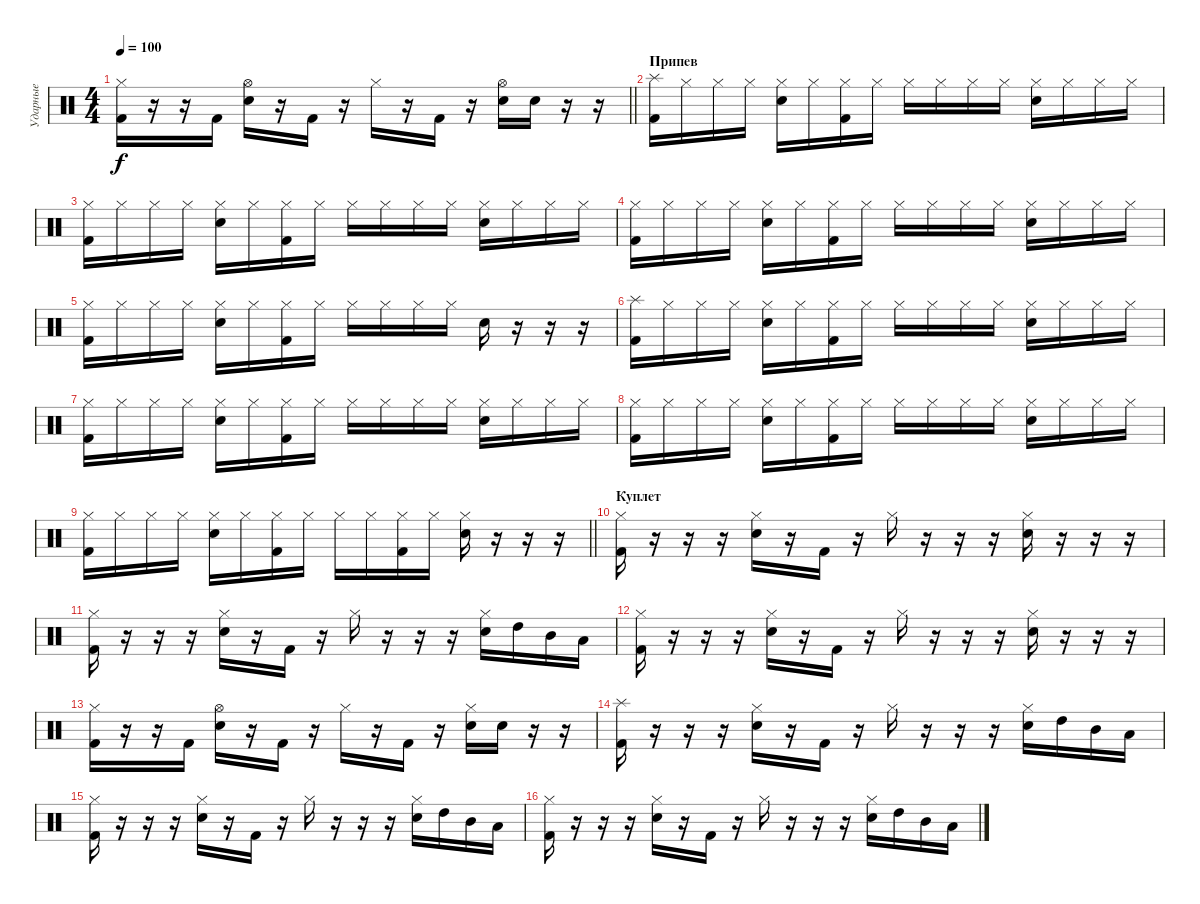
\track ("Ударные" "Ударные") {instrument percussion}
\staff {score}
\articulation defaults
\ts (4 4)
\tempo 100
\clef neutral
\barLineRight lightlight
\ks c
("Hi-Hat (closed)" "Kick (hit) 2").16{dy f} r.16 r.16 "Kick (hit) 2".16 ("Hi-Hat (open)" "Electric Snare (hit)").16 r.16 "Kick (hit) 2".16 r.16 "Hi-Hat (closed)".16 r.16 "Kick (hit) 2".16 r.16 ("Hi-Hat (open)" "Electric Snare (hit)").16 "Electric Snare (hit)".16 r.16 r.16 |
\section ("" "Припев")
("Splash (hit)" "Kick (hit) 2").16 "Hi-Hat (closed)".16 "Hi-Hat (closed)".16 "Hi-Hat (closed)".16 ("Hi-Hat (closed)" "Electric Snare (hit)").16 "Hi-Hat (closed)".16 ("Hi-Hat (closed)" "Kick (hit) 2").16 "Hi-Hat (closed)".16 "Hi-Hat (closed)".16 "Hi-Hat (closed)".16 "Hi-Hat (closed)".16 "Hi-Hat (closed)".16 ("Hi-Hat (closed)" "Electric Snare (hit)").16 "Hi-Hat (closed)".16 "Hi-Hat (closed)".16 "Hi-Hat (closed)".16 |
("Hi-Hat (closed)" "Kick (hit) 2").16 "Hi-Hat (closed)".16 "Hi-Hat (closed)".16 "Hi-Hat (closed)".16 ("Hi-Hat (closed)" "Electric Snare (hit)").16 "Hi-Hat (closed)".16 ("Hi-Hat (closed)" "Kick (hit) 2").16 "Hi-Hat (closed)".16 "Hi-Hat (closed)".16 "Hi-Hat (closed)".16 "Hi-Hat (closed)".16 "Hi-Hat (closed)".16 ("Hi-Hat (closed)" "Electric Snare (hit)").16 "Hi-Hat (closed)".16 "Hi-Hat (closed)".16 "Hi-Hat (closed)".16 |
("Hi-Hat (closed)" "Kick (hit) 2").16 "Hi-Hat (closed)".16 "Hi-Hat (closed)".16 "Hi-Hat (closed)".16 ("Hi-Hat (closed)" "Electric Snare (hit)").16 "Hi-Hat (closed)".16 ("Hi-Hat (closed)" "Kick (hit) 2").16 "Hi-Hat (closed)".16 "Hi-Hat (closed)".16 "Hi-Hat (closed)".16 "Hi-Hat (closed)".16 "Hi-Hat (closed)".16 ("Hi-Hat (closed)" "Electric Snare (hit)").16 "Hi-Hat (closed)".16 "Hi-Hat (closed)".16 "Hi-Hat (closed)".16 |
("Hi-Hat (closed)" "Kick (hit) 2").16 "Hi-Hat (closed)".16 "Hi-Hat (closed)".16 "Hi-Hat (closed)".16 ("Hi-Hat (closed)" "Electric Snare (hit)").16 "Hi-Hat (closed)".16 ("Hi-Hat (closed)" "Kick (hit) 2").16 "Hi-Hat (closed)".16 "Hi-Hat (closed)".16 "Hi-Hat (closed)".16 "Hi-Hat (closed)".16 "Hi-Hat (closed)".16 "Electric Snare (hit)".16 r.16 r.16 r.16 |
("Splash (hit)" "Kick (hit) 2").16 "Hi-Hat (closed)".16 "Hi-Hat (closed)".16 "Hi-Hat (closed)".16 ("Hi-Hat (closed)" "Electric Snare (hit)").16 "Hi-Hat (closed)".16 ("Hi-Hat (closed)" "Kick (hit) 2").16 "Hi-Hat (closed)".16 "Hi-Hat (closed)".16 "Hi-Hat (closed)".16 "Hi-Hat (closed)".16 "Hi-Hat (closed)".16 ("Hi-Hat (closed)" "Electric Snare (hit)").16 "Hi-Hat (closed)".16 "Hi-Hat (closed)".16 "Hi-Hat (closed)".16 |
("Hi-Hat (closed)" "Kick (hit) 2").16 "Hi-Hat (closed)".16 "Hi-Hat (closed)".16 "Hi-Hat (closed)".16 ("Hi-Hat (closed)" "Electric Snare (hit)").16 "Hi-Hat (closed)".16 ("Hi-Hat (closed)" "Kick (hit) 2").16 "Hi-Hat (closed)".16 "Hi-Hat (closed)".16 "Hi-Hat (closed)".16 "Hi-Hat (closed)".16 "Hi-Hat (closed)".16 ("Hi-Hat (closed)" "Electric Snare (hit)").16 "Hi-Hat (closed)".16 "Hi-Hat (closed)".16 "Hi-Hat (closed)".16 |
("Hi-Hat (closed)" "Kick (hit) 2").16 "Hi-Hat (closed)".16 "Hi-Hat (closed)".16 "Hi-Hat (closed)".16 ("Hi-Hat (closed)" "Electric Snare (hit)").16 "Hi-Hat (closed)".16 ("Hi-Hat (closed)" "Kick (hit) 2").16 "Hi-Hat (closed)".16 "Hi-Hat (closed)".16 "Hi-Hat (closed)".16 "Hi-Hat (closed)".16 "Hi-Hat (closed)".16 ("Hi-Hat (closed)" "Electric Snare (hit)").16 "Hi-Hat (closed)".16 "Hi-Hat (closed)".16 "Hi-Hat (closed)".16 |
\barLineRight lightlight
("Hi-Hat (closed)" "Kick (hit) 2").16 "Hi-Hat (closed)".16 "Hi-Hat (closed)".16 "Hi-Hat (closed)".16 ("Hi-Hat (closed)" "Electric Snare (hit)").16 "Hi-Hat (closed)".16 ("Hi-Hat (closed)" "Kick (hit) 2").16 "Hi-Hat (closed)".16 "Hi-Hat (closed)".16 "Hi-Hat (closed)".16 ("Hi-Hat (closed)" "Kick (hit) 2").16 "Hi-Hat (closed)".16 ("Hi-Hat (closed)" "Electric Snare (hit)").16 r.16 r.16 r.16 |
\section ("" "Куплет")
("Hi-Hat (closed)" "Kick (hit) 2").16 r.16 r.16 r.16 ("Hi-Hat (closed)" "Electric Snare (hit)").16 r.16 "Kick (hit) 2".16 r.16 "Hi-Hat (closed)".16 r.16 r.16 r.16 ("Hi-Hat (closed)" "Electric Snare (hit)").16 r.16 r.16 r.16 |
("Hi-Hat (closed)" "Kick (hit) 2").16 r.16 r.16 r.16 ("Hi-Hat (closed)" "Electric Snare (hit)").16 r.16 "Kick (hit) 2".16 r.16 "Hi-Hat (closed)".16 r.16 r.16 r.16 ("Hi-Hat (closed)" "Electric Snare (hit)").16 "High Tom (hit)".16 "Mid Tom (hit)".16 "Low Tom (hit)".16 |
("Hi-Hat (closed)" "Kick (hit) 2").16 r.16 r.16 r.16 ("Hi-Hat (closed)" "Electric Snare (hit)").16 r.16 "Kick (hit) 2".16 r.16 "Hi-Hat (closed)".16 r.16 r.16 r.16 ("Hi-Hat (closed)" "Electric Snare (hit)").16 r.16 r.16 r.16 |
("Hi-Hat (closed)" "Kick (hit) 2").16 r.16 r.16 "Kick (hit) 2".16 ("Hi-Hat (open)" "Electric Snare (hit)").16 r.16 "Kick (hit) 2".16 r.16 "Hi-Hat (closed)".16 r.16 "Kick (hit) 2".16 r.16 ("Hi-Hat (closed)" "Electric Snare (hit)").16 "Electric Snare (hit)".16 r.16 r.16 |
("Splash (hit)" "Kick (hit) 2").16 r.16 r.16 r.16 ("Hi-Hat (closed)" "Electric Snare (hit)").16 r.16 "Kick (hit) 2".16 r.16 "Hi-Hat (closed)".16 r.16 r.16 r.16 ("Hi-Hat (closed)" "Electric Snare (hit)").16 "High Tom (hit)".16 "Mid Tom (hit)".16 "Low Tom (hit)".16 |
("Hi-Hat (closed)" "Kick (hit) 2").16 r.16 r.16 r.16 ("Hi-Hat (closed)" "Electric Snare (hit)").16 r.16 "Kick (hit) 2".16 r.16 "Hi-Hat (closed)".16 r.16 r.16 r.16 ("Hi-Hat (closed)" "Electric Snare (hit)").16 "High Tom (hit)".16 "Mid Tom (hit)".16 "Low Tom (hit)".16 |
("Hi-Hat (closed)" "Kick (hit) 2").16 r.16 r.16 r.16 ("Hi-Hat (closed)" "Electric Snare (hit)").16 r.16 "Kick (hit) 2".16 r.16 "Hi-Hat (closed)".16 r.16 r.16 r.16 ("Hi-Hat (closed)" "Electric Snare (hit)").16 "High Tom (hit)".16 "Mid Tom (hit)".16 "Low Tom (hit)".16
